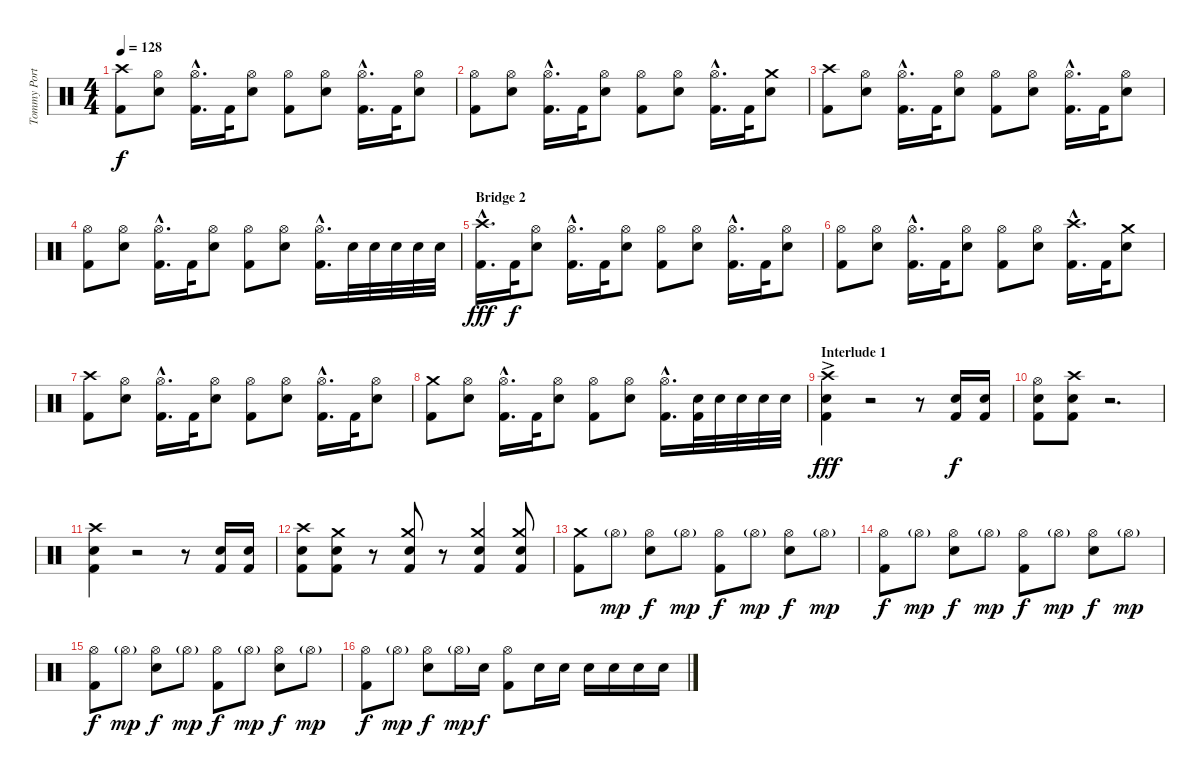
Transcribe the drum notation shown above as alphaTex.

\track ("Tommy Portimo" "Tommy Port") {instrument percussion}
\staff {score}
\articulation defaults
\ts (4 4)
\tempo 128
\clef neutral
\ks c
("Crash high (hit)" "Kick (hit) 2").8{dy f} ("Hi-Hat (open)" "Snare (hit) 2").8 ("Hi-Hat (open)"{hac} "Kick (hit) 2"{hac}).16{d} "Kick (hit) 2".32 ("Hi-Hat (open)" "Snare (hit) 2").8 ("Hi-Hat (open)" "Kick (hit) 2").8 ("Hi-Hat (open)" "Snare (hit) 2").8 ("Hi-Hat (open)"{hac} "Kick (hit) 2"{hac}).16{d} "Kick (hit) 2".32 ("Hi-Hat (open)" "Snare (hit) 2").8 |
("Hi-Hat (open)" "Kick (hit) 2").8 ("Hi-Hat (open)" "Snare (hit) 2").8 ("Hi-Hat (open)"{hac} "Kick (hit) 2"{hac}).16{d} "Kick (hit) 2".32 ("Hi-Hat (open)" "Snare (hit) 2").8 ("Hi-Hat (open)" "Kick (hit) 2").8 ("Hi-Hat (open)" "Snare (hit) 2").8 ("Hi-Hat (open)"{hac} "Kick (hit) 2"{hac}).16{d} "Kick (hit) 2".32 ("Crash medium (hit)" "Snare (hit) 2").8 |
("Crash high (hit)" "Kick (hit) 2").8 ("Hi-Hat (open)" "Snare (hit) 2").8 ("Hi-Hat (open)"{hac} "Kick (hit) 2"{hac}).16{d} "Kick (hit) 2".32 ("Hi-Hat (open)" "Snare (hit) 2").8 ("Hi-Hat (open)" "Kick (hit) 2").8 ("Hi-Hat (open)" "Snare (hit) 2").8 ("Hi-Hat (open)"{hac} "Kick (hit) 2"{hac}).16{d} "Kick (hit) 2".32 ("Hi-Hat (open)" "Snare (hit) 2").8 |
("Hi-Hat (open)" "Kick (hit) 2").8 ("Hi-Hat (open)" "Snare (hit) 2").8 ("Hi-Hat (open)"{hac} "Kick (hit) 2"{hac}).16{d} "Kick (hit) 2".32 ("Hi-Hat (open)" "Snare (hit) 2").8 ("Hi-Hat (open)" "Kick (hit) 2").8 ("Hi-Hat (open)" "Snare (hit) 2").8 ("Hi-Hat (open)"{hac} "Kick (hit) 2"{hac}).16{d} "Snare (hit) 2".32 "Snare (hit) 2".32 "Snare (hit) 2".32 "Snare (hit) 2".32 "Snare (hit) 2".32 |
\section ("" "Bridge 2")
("Crash high (hit)"{hac} "Kick (hit) 2"{hac}).16{d dy fff} "Kick (hit) 2".32{dy f} ("Hi-Hat (open)" "Snare (hit) 2").8 ("Hi-Hat (open)"{hac} "Kick (hit) 2"{hac}).16{d} "Kick (hit) 2".32 ("Hi-Hat (open)" "Snare (hit) 2").8 ("Hi-Hat (open)" "Kick (hit) 2").8 ("Hi-Hat (open)" "Snare (hit) 2").8 ("Hi-Hat (open)"{hac} "Kick (hit) 2"{hac}).16{d} "Kick (hit) 2".32 ("Hi-Hat (open)" "Snare (hit) 2").8 |
("Hi-Hat (open)" "Kick (hit) 2").8 ("Hi-Hat (open)" "Snare (hit) 2").8 ("Hi-Hat (open)"{hac} "Kick (hit) 2"{hac}).16{d} "Kick (hit) 2".32 ("Hi-Hat (open)" "Snare (hit) 2").8 ("Hi-Hat (open)" "Kick (hit) 2").8 ("Hi-Hat (open)" "Snare (hit) 2").8 ("Crash high (hit)"{hac} "Kick (hit) 2"{hac}).16{d} "Kick (hit) 2".32 ("Crash medium (hit)" "Snare (hit) 2").8 |
("Crash high (hit)" "Kick (hit) 2").8 ("Hi-Hat (open)" "Snare (hit) 2").8 ("Hi-Hat (open)"{hac} "Kick (hit) 2"{hac}).16{d} "Kick (hit) 2".32 ("Hi-Hat (open)" "Snare (hit) 2").8 ("Hi-Hat (open)" "Kick (hit) 2").8 ("Hi-Hat (open)" "Snare (hit) 2").8 ("Hi-Hat (open)"{hac} "Kick (hit) 2"{hac}).16{d} "Kick (hit) 2".32 ("Hi-Hat (open)" "Snare (hit) 2").8 |
("Crash medium (hit)" "Kick (hit) 2").8 ("Hi-Hat (open)" "Snare (hit) 2").8 ("Hi-Hat (open)"{hac} "Kick (hit) 2"{hac}).16{d} "Kick (hit) 2".32 ("Hi-Hat (open)" "Snare (hit) 2").8 ("Hi-Hat (open)" "Kick (hit) 2").8 ("Hi-Hat (open)" "Snare (hit) 2").8 ("Hi-Hat (open)"{hac} "Kick (hit) 2"{hac}).16{d} ("Snare (hit) 2" "Kick (hit) 2").32 "Snare (hit) 2".32 "Snare (hit) 2".32 "Snare (hit) 2".32 "Snare (hit) 2".32 |
\section ("" "Interlude 1")
("Crash high (hit)"{ac} "Electric Snare (hit)" "Kick (hit) 2").4{dy fff} r.2{volume 0} r.8 ("Electric Snare (hit)" "Kick (hit) 2").16{dy f volume 16} ("Electric Snare (hit)" "Kick (hit) 2").16 |
("Hi-Hat (open)" "Electric Snare (hit)" "Kick (hit) 2").8 ("Crash high (hit)" "Electric Snare (hit)" "Kick (hit) 2").8 r.2{d} |
("Crash high (hit)" "Electric Snare (hit)" "Kick (hit) 2").4 r.2 r.8 ("Electric Snare (hit)" "Kick (hit) 2").16 ("Electric Snare (hit)" "Kick (hit) 2").16 |
("Crash high (hit)" "Electric Snare (hit)" "Kick (hit) 2").8 ("Crash medium (hit)" "Electric Snare (hit)" "Kick (hit) 2").8 r.8 ("Crash medium (hit)" "Electric Snare (hit)" "Kick (hit) 2").8 r.8 ("Crash medium (hit)" "Electric Snare (hit)" "Kick (hit) 2").4 ("Crash medium (hit)" "Electric Snare (hit)" "Kick (hit) 2").8 |
("Crash medium (hit)" "Kick (hit) 2").8 "Hi-Hat (open)"{g}.8{dy mp} ("Hi-Hat (open)" "Snare (hit) 2").8{dy f} "Hi-Hat (open)"{g}.8{dy mp} ("Hi-Hat (open)" "Kick (hit) 2").8{dy f} "Hi-Hat (open)"{g}.8{dy mp} ("Hi-Hat (open)" "Snare (hit) 2").8{dy f} "Hi-Hat (open)"{g}.8{dy mp} |
("Hi-Hat (open)" "Kick (hit) 2").8{dy f} "Hi-Hat (open)"{g}.8{dy mp} ("Hi-Hat (open)" "Snare (hit) 2").8{dy f} "Hi-Hat (open)"{g}.8{dy mp} ("Hi-Hat (open)" "Kick (hit) 2").8{dy f} "Hi-Hat (open)"{g}.8{dy mp} ("Hi-Hat (open)" "Snare (hit) 2").8{dy f} "Hi-Hat (open)"{g}.8{dy mp} |
("Hi-Hat (open)" "Kick (hit) 2").8{dy f} "Hi-Hat (open)"{g}.8{dy mp} ("Hi-Hat (open)" "Snare (hit) 2").8{dy f} "Hi-Hat (open)"{g}.8{dy mp} ("Hi-Hat (open)" "Kick (hit) 2").8{dy f} "Hi-Hat (open)"{g}.8{dy mp} ("Hi-Hat (open)" "Snare (hit) 2").8{dy f} "Hi-Hat (open)"{g}.8{dy mp} |
("Hi-Hat (open)" "Kick (hit) 2").8{dy f} "Hi-Hat (open)"{g}.8{dy mp} ("Hi-Hat (open)" "Snare (hit) 2").8{dy f} "Hi-Hat (open)"{g}.16{dy mp} "Snare (hit) 2".16{dy f} ("Hi-Hat (open)" "Kick (hit) 2").8 "Snare (hit) 2".16 "Snare (hit) 2".16 "Snare (hit) 2".16 "Snare (hit) 2".16 "Snare (hit) 2".16 "Snare (hit) 2".16
